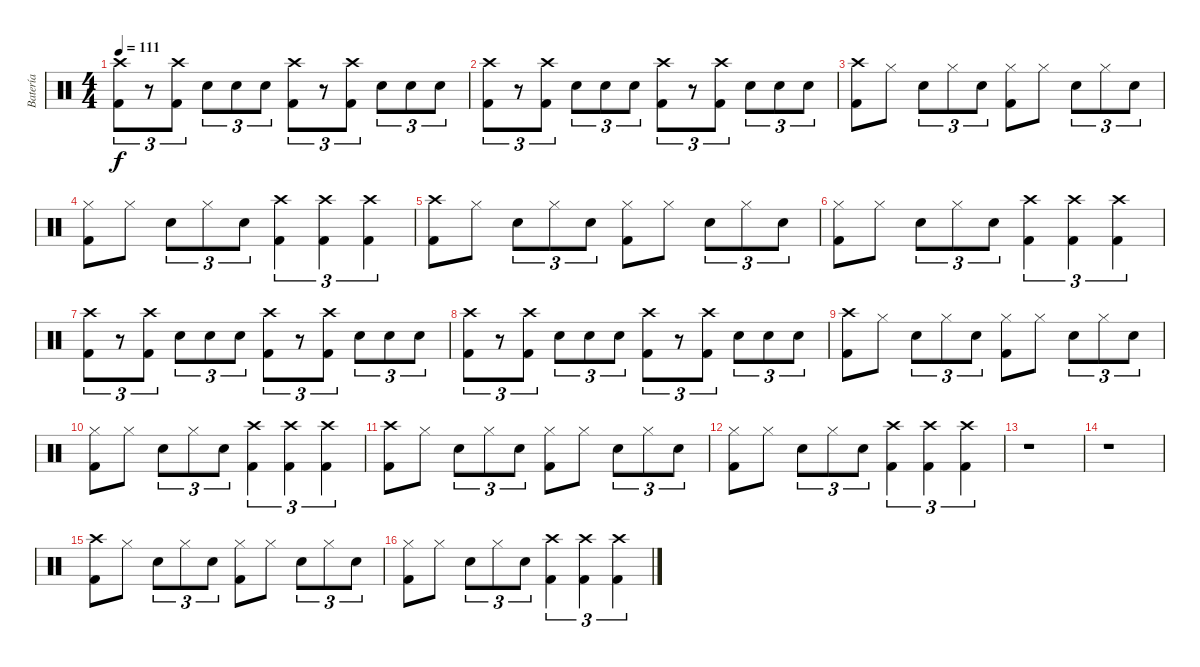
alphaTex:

\track ("Batería" "Batería") {instrument percussion}
\staff {score}
\articulation defaults
\ts (4 4)
\tempo 111
\clef neutral
\ks c
("Crash high (hit)" "Kick (hit) 2").8{tu (3 2) dy f} r.8{tu (3 2)} ("Crash high (hit)" "Kick (hit) 2").8{tu (3 2)} "Snare (hit) 2".8{tu (3 2)} "Snare (hit) 2".8{tu (3 2)} "Snare (hit) 2".8{tu (3 2)} ("Crash high (hit)" "Kick (hit) 2").8{tu (3 2)} r.8{tu (3 2)} ("Crash high (hit)" "Kick (hit) 2").8{tu (3 2)} "Snare (hit) 2".8{tu (3 2)} "Snare (hit) 2".8{tu (3 2)} "Snare (hit) 2".8{tu (3 2)} |
("Crash high (hit)" "Kick (hit) 2").8{tu (3 2)} r.8{tu (3 2)} ("Crash high (hit)" "Kick (hit) 2").8{tu (3 2)} "Snare (hit) 2".8{tu (3 2)} "Snare (hit) 2".8{tu (3 2)} "Snare (hit) 2".8{tu (3 2)} ("Crash high (hit)" "Kick (hit) 2").8{tu (3 2)} r.8{tu (3 2)} ("Crash high (hit)" "Kick (hit) 2").8{tu (3 2)} "Snare (hit) 2".8{tu (3 2)} "Snare (hit) 2".8{tu (3 2)} "Snare (hit) 2".8{tu (3 2)} |
("Crash high (hit)" "Kick (hit) 2").8 "Hi-Hat (closed)".8 "Snare (hit) 2".8{tu (3 2)} "Hi-Hat (closed)".8{tu (3 2)} "Snare (hit) 2".8{tu (3 2)} ("Hi-Hat (closed)" "Kick (hit) 2").8 "Hi-Hat (closed)".8 "Snare (hit) 2".8{tu (3 2)} "Hi-Hat (closed)".8{tu (3 2)} "Snare (hit) 2".8{tu (3 2)} |
("Hi-Hat (closed)" "Kick (hit) 2").8 "Hi-Hat (closed)".8 "Snare (hit) 2".8{tu (3 2)} "Hi-Hat (closed)".8{tu (3 2)} "Snare (hit) 2".8{tu (3 2)} ("Crash high (hit)" "Kick (hit) 2").4{tu (3 2)} ("Crash high (hit)" "Kick (hit) 2").4{tu (3 2)} ("Crash high (hit)" "Kick (hit) 2").4{tu (3 2)} |
("Crash high (hit)" "Kick (hit) 2").8 "Hi-Hat (closed)".8 "Snare (hit) 2".8{tu (3 2)} "Hi-Hat (closed)".8{tu (3 2)} "Snare (hit) 2".8{tu (3 2)} ("Hi-Hat (closed)" "Kick (hit) 2").8 "Hi-Hat (closed)".8 "Snare (hit) 2".8{tu (3 2)} "Hi-Hat (closed)".8{tu (3 2)} "Snare (hit) 2".8{tu (3 2)} |
("Hi-Hat (closed)" "Kick (hit) 2").8 "Hi-Hat (closed)".8 "Snare (hit) 2".8{tu (3 2)} "Hi-Hat (closed)".8{tu (3 2)} "Snare (hit) 2".8{tu (3 2)} ("Crash high (hit)" "Kick (hit) 2").4{tu (3 2)} ("Crash high (hit)" "Kick (hit) 2").4{tu (3 2)} ("Crash high (hit)" "Kick (hit) 2").4{tu (3 2)} |
("Crash high (hit)" "Kick (hit) 2").8{tu (3 2)} r.8{tu (3 2)} ("Crash high (hit)" "Kick (hit) 2").8{tu (3 2)} "Snare (hit) 2".8{tu (3 2)} "Snare (hit) 2".8{tu (3 2)} "Snare (hit) 2".8{tu (3 2)} ("Crash high (hit)" "Kick (hit) 2").8{tu (3 2)} r.8{tu (3 2)} ("Crash high (hit)" "Kick (hit) 2").8{tu (3 2)} "Snare (hit) 2".8{tu (3 2)} "Snare (hit) 2".8{tu (3 2)} "Snare (hit) 2".8{tu (3 2)} |
("Crash high (hit)" "Kick (hit) 2").8{tu (3 2)} r.8{tu (3 2)} ("Crash high (hit)" "Kick (hit) 2").8{tu (3 2)} "Snare (hit) 2".8{tu (3 2)} "Snare (hit) 2".8{tu (3 2)} "Snare (hit) 2".8{tu (3 2)} ("Crash high (hit)" "Kick (hit) 2").8{tu (3 2)} r.8{tu (3 2)} ("Crash high (hit)" "Kick (hit) 2").8{tu (3 2)} "Snare (hit) 2".8{tu (3 2)} "Snare (hit) 2".8{tu (3 2)} "Snare (hit) 2".8{tu (3 2)} |
("Crash high (hit)" "Kick (hit) 2").8 "Hi-Hat (closed)".8 "Snare (hit) 2".8{tu (3 2)} "Hi-Hat (closed)".8{tu (3 2)} "Snare (hit) 2".8{tu (3 2)} ("Hi-Hat (closed)" "Kick (hit) 2").8 "Hi-Hat (closed)".8 "Snare (hit) 2".8{tu (3 2)} "Hi-Hat (closed)".8{tu (3 2)} "Snare (hit) 2".8{tu (3 2)} |
("Hi-Hat (closed)" "Kick (hit) 2").8 "Hi-Hat (closed)".8 "Snare (hit) 2".8{tu (3 2)} "Hi-Hat (closed)".8{tu (3 2)} "Snare (hit) 2".8{tu (3 2)} ("Crash high (hit)" "Kick (hit) 2").4{tu (3 2)} ("Crash high (hit)" "Kick (hit) 2").4{tu (3 2)} ("Crash high (hit)" "Kick (hit) 2").4{tu (3 2)} |
("Crash high (hit)" "Kick (hit) 2").8 "Hi-Hat (closed)".8 "Snare (hit) 2".8{tu (3 2)} "Hi-Hat (closed)".8{tu (3 2)} "Snare (hit) 2".8{tu (3 2)} ("Hi-Hat (closed)" "Kick (hit) 2").8 "Hi-Hat (closed)".8 "Snare (hit) 2".8{tu (3 2)} "Hi-Hat (closed)".8{tu (3 2)} "Snare (hit) 2".8{tu (3 2)} |
("Hi-Hat (closed)" "Kick (hit) 2").8 "Hi-Hat (closed)".8 "Snare (hit) 2".8{tu (3 2)} "Hi-Hat (closed)".8{tu (3 2)} "Snare (hit) 2".8{tu (3 2)} ("Crash high (hit)" "Kick (hit) 2").4{tu (3 2)} ("Crash high (hit)" "Kick (hit) 2").4{tu (3 2)} ("Crash high (hit)" "Kick (hit) 2").4{tu (3 2)} |
r.1 |
r.1 |
("Crash high (hit)" "Kick (hit) 2").8 "Hi-Hat (closed)".8 "Snare (hit) 2".8{tu (3 2)} "Hi-Hat (closed)".8{tu (3 2)} "Snare (hit) 2".8{tu (3 2)} ("Hi-Hat (closed)" "Kick (hit) 2").8 "Hi-Hat (closed)".8 "Snare (hit) 2".8{tu (3 2)} "Hi-Hat (closed)".8{tu (3 2)} "Snare (hit) 2".8{tu (3 2)} |
("Hi-Hat (closed)" "Kick (hit) 2").8 "Hi-Hat (closed)".8 "Snare (hit) 2".8{tu (3 2)} "Hi-Hat (closed)".8{tu (3 2)} "Snare (hit) 2".8{tu (3 2)} ("Crash high (hit)" "Kick (hit) 2").4{tu (3 2)} ("Crash high (hit)" "Kick (hit) 2").4{tu (3 2)} ("Crash high (hit)" "Kick (hit) 2").4{tu (3 2)}
